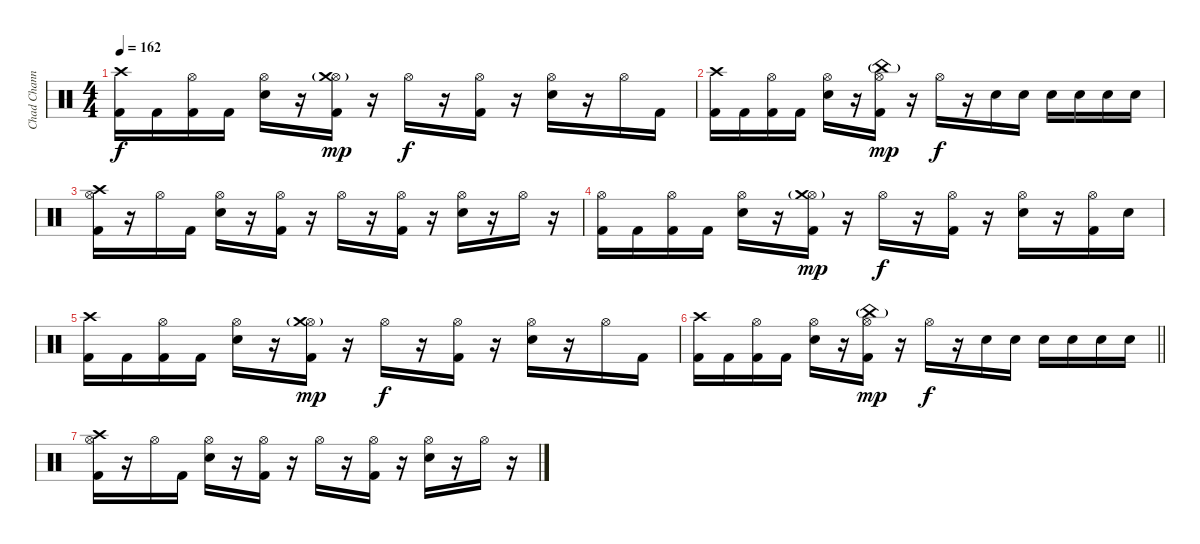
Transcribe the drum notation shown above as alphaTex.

\track ("Chad Channing" "Chad Chann") {instrument percussion}
\staff {score}
\articulation defaults
\ts (4 4)
\tempo 162
\clef neutral
\ks c
("Crash high (hit)" "Kick (hit) 2").16{dy f} "Kick (hit) 2".16 ("Hi-Hat (open)" "Kick (hit) 2").16 "Kick (hit) 2".16 ("Hi-Hat (open)" "Snare (hit) 2").16 r.16 ("Hi-Hat (open)" "Crash medium (hit)"{g} "Kick (hit) 2").16{dy mp} r.16 "Hi-Hat (open)".16{dy f} r.16 ("Hi-Hat (open)" "Kick (hit) 2").16 r.16 ("Hi-Hat (open)" "Snare (hit) 2").16 r.16 "Hi-Hat (open)".16 "Kick (hit) 2".16 |
("Crash high (hit)" "Kick (hit) 2").16 "Kick (hit) 2".16 ("Hi-Hat (open)" "Kick (hit) 2").16 "Kick (hit) 2".16 ("Hi-Hat (open)" "Snare (hit) 2").16 r.16 ("Hi-Hat (open)" "China (hit)"{g} "Kick (hit) 2").16{dy mp} r.16 "Hi-Hat (open)".16{dy f} r.16 "Snare (hit) 2".16 "Snare (hit) 2".16 "Snare (hit) 2".16 "Snare (hit) 2".16 "Snare (hit) 2".16 "Snare (hit) 2".16 |
("Crash high (hit)" "Hi-Hat (open)" "Kick (hit) 2").16{volume 0} r.16 "Hi-Hat (open)".16 "Kick (hit) 2".16 ("Hi-Hat (open)" "Snare (hit) 2").16 r.16 ("Hi-Hat (open)" "Kick (hit) 2").16 r.16 "Hi-Hat (open)".16 r.16 ("Hi-Hat (open)" "Kick (hit) 2").16 r.16 ("Hi-Hat (open)" "Snare (hit) 2").16 r.16 "Hi-Hat (open)".16 r.16 |
("Hi-Hat (open)" "Kick (hit) 2").16 "Kick (hit) 2".16 ("Hi-Hat (open)" "Kick (hit) 2").16 "Kick (hit) 2".16 ("Hi-Hat (open)" "Snare (hit) 2").16 r.16 ("Hi-Hat (open)" "Crash medium (hit)"{g} "Kick (hit) 2").16{dy mp} r.16 "Hi-Hat (open)".16{dy f} r.16 ("Hi-Hat (open)" "Kick (hit) 2").16 r.16 ("Hi-Hat (open)" "Snare (hit) 2").16 r.16 ("Hi-Hat (open)" "Kick (hit) 2").16 "Snare (hit) 2".16 |
("Crash high (hit)" "Kick (hit) 2").16 "Kick (hit) 2".16 ("Hi-Hat (open)" "Kick (hit) 2").16 "Kick (hit) 2".16 ("Hi-Hat (open)" "Snare (hit) 2").16 r.16 ("Hi-Hat (open)" "Crash medium (hit)"{g} "Kick (hit) 2").16{dy mp} r.16 "Hi-Hat (open)".16{dy f} r.16 ("Hi-Hat (open)" "Kick (hit) 2").16 r.16 ("Hi-Hat (open)" "Snare (hit) 2").16 r.16 "Hi-Hat (open)".16 "Kick (hit) 2".16 |
\barLineRight lightlight
("Crash high (hit)" "Kick (hit) 2").16 "Kick (hit) 2".16 ("Hi-Hat (open)" "Kick (hit) 2").16 "Kick (hit) 2".16 ("Hi-Hat (open)" "Snare (hit) 2").16 r.16 ("Hi-Hat (open)" "China (hit)"{g} "Kick (hit) 2").16{dy mp} r.16 "Hi-Hat (open)".16{dy f} r.16 "Snare (hit) 2".16 "Snare (hit) 2".16 "Snare (hit) 2".16 "Snare (hit) 2".16 "Snare (hit) 2".16 "Snare (hit) 2".16 |
("Crash high (hit)" "Hi-Hat (open)" "Kick (hit) 2").16 r.16 "Hi-Hat (open)".16 "Kick (hit) 2".16 ("Hi-Hat (open)" "Snare (hit) 2").16 r.16 ("Hi-Hat (open)" "Kick (hit) 2").16 r.16 "Hi-Hat (open)".16 r.16 ("Hi-Hat (open)" "Kick (hit) 2").16 r.16 ("Hi-Hat (open)" "Snare (hit) 2").16 r.16 "Hi-Hat (open)".16 r.16
